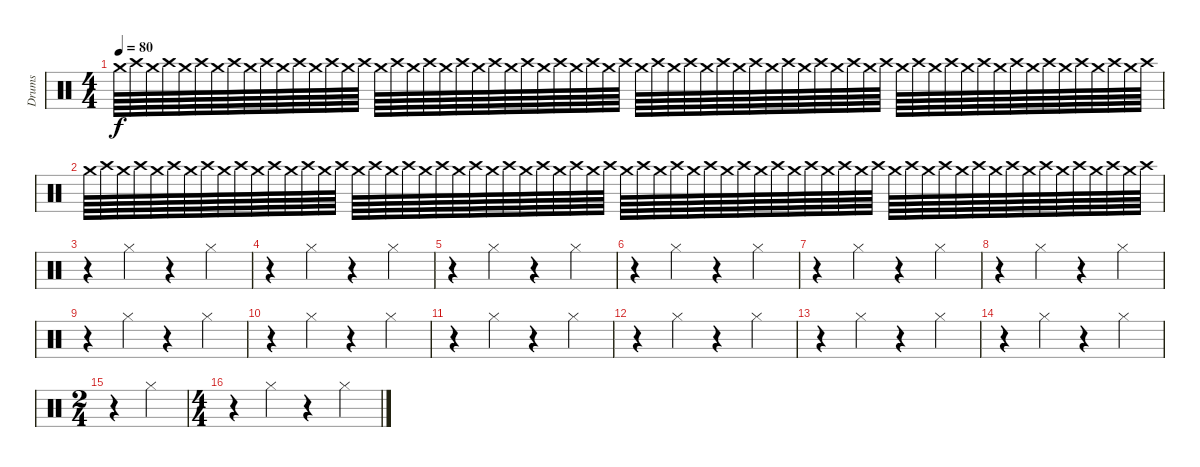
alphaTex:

\track ("Drums" "Drums") {instrument percussion}
\staff {score}
\articulation defaults
\ts (4 4)
\tempo 80
\clef neutral
\ks c "Crash medium (hit)".64{dy f volume 0} "Crash high (hit)".64{volume 6} "Crash medium (hit)".64 "Crash high (hit)".64 "Crash medium (hit)".64 "Crash high (hit)".64 "Crash medium (hit)".64 "Crash high (hit)".64 "Crash medium (hit)".64 "Crash high (hit)".64 "Crash medium (hit)".64 "Crash high (hit)".64 "Crash medium (hit)".64 "Crash high (hit)".64 "Crash medium (hit)".64 "Crash high (hit)".64 "Crash medium (hit)".64 "Crash high (hit)".64 "Crash medium (hit)".64 "Crash high (hit)".64 "Crash medium (hit)".64 "Crash high (hit)".64 "Crash medium (hit)".64 "Crash high (hit)".64 "Crash medium (hit)".64 "Crash high (hit)".64 "Crash medium (hit)".64 "Crash high (hit)".64 "Crash medium (hit)".64 "Crash high (hit)".64 "Crash medium (hit)".64 "Crash high (hit)".64 "Crash medium (hit)".64 "Crash high (hit)".64 "Crash medium (hit)".64 "Crash high (hit)".64 "Crash medium (hit)".64 "Crash high (hit)".64 "Crash medium (hit)".64 "Crash high (hit)".64 "Crash medium (hit)".64 "Crash high (hit)".64 "Crash medium (hit)".64 "Crash high (hit)".64 "Crash medium (hit)".64 "Crash high (hit)".64 "Crash medium (hit)".64 "Crash high (hit)".64 "Crash medium (hit)".64 "Crash high (hit)".64 "Crash medium (hit)".64 "Crash high (hit)".64 "Crash medium (hit)".64 "Crash high (hit)".64 "Crash medium (hit)".64 "Crash high (hit)".64 "Crash medium (hit)".64 "Crash high (hit)".64 "Crash medium (hit)".64 "Crash high (hit)".64 "Crash medium (hit)".64 "Crash high (hit)".64 "Crash medium (hit)".64 "Crash high (hit)".64
|
"Crash medium (hit)".64 "Crash high (hit)".64 "Crash medium (hit)".64 "Crash high (hit)".64 "Crash medium (hit)".64 "Crash high (hit)".64 "Crash medium (hit)".64 "Crash high (hit)".64 "Crash medium (hit)".64 "Crash high (hit)".64 "Crash medium (hit)".64 "Crash high (hit)".64 "Crash medium (hit)".64 "Crash high (hit)".64 "Crash medium (hit)".64 "Crash high (hit)".64 "Crash medium (hit)".64 "Crash high (hit)".64 "Crash medium (hit)".64 "Crash high (hit)".64 "Crash medium (hit)".64 "Crash high (hit)".64 "Crash medium (hit)".64 "Crash high (hit)".64 "Crash medium (hit)".64 "Crash high (hit)".64 "Crash medium (hit)".64 "Crash high (hit)".64 "Crash medium (hit)".64 "Crash high (hit)".64 "Crash medium (hit)".64 "Crash high (hit)".64 "Crash medium (hit)".64 "Crash high (hit)".64 "Crash medium (hit)".64 "Crash high (hit)".64 "Crash medium (hit)".64 "Crash high (hit)".64 "Crash medium (hit)".64 "Crash high (hit)".64 "Crash medium (hit)".64 "Crash high (hit)".64 "Crash medium (hit)".64 "Crash high (hit)".64 "Crash medium (hit)".64 "Crash high (hit)".64 "Crash medium (hit)".64 "Crash high (hit)".64 "Crash medium (hit)".64 "Crash high (hit)".64 "Crash medium (hit)".64 "Crash high (hit)".64 "Crash medium (hit)".64 "Crash high (hit)".64 "Crash medium (hit)".64 "Crash high (hit)".64 "Crash medium (hit)".64 "Crash high (hit)".64 "Crash medium (hit)".64 "Crash high (hit)".64 "Crash medium (hit)".64 "Crash high (hit)".64 "Crash medium (hit)".64 "Crash high (hit)".64 |
r.4 "Hi-Hat (closed)".4{volume 14} r.4 "Hi-Hat (closed)".4 |
r.4 "Hi-Hat (closed)".4 r.4 "Hi-Hat (closed)".4 |
r.4 "Hi-Hat (closed)".4 r.4 "Hi-Hat (closed)".4 |
r.4 "Hi-Hat (closed)".4 r.4 "Hi-Hat (closed)".4 |
r.4 "Hi-Hat (closed)".4 r.4 "Hi-Hat (closed)".4 |
r.4 "Hi-Hat (closed)".4 r.4 "Hi-Hat (closed)".4 |
r.4 "Hi-Hat (closed)".4 r.4 "Hi-Hat (closed)".4 |
r.4 "Hi-Hat (closed)".4 r.4 "Hi-Hat (closed)".4 |
r.4 "Hi-Hat (closed)".4 r.4 "Hi-Hat (closed)".4 |
r.4 "Hi-Hat (closed)".4 r.4 "Hi-Hat (closed)".4 |
r.4 "Hi-Hat (closed)".4 r.4 "Hi-Hat (closed)".4 |
r.4 "Hi-Hat (closed)".4 r.4 "Hi-Hat (closed)".4 |
\ts (2 4)
r.4 "Hi-Hat (closed)".4 |
\ts (4 4)
r.4 "Hi-Hat (closed)".4 r.4 "Hi-Hat (closed)".4
